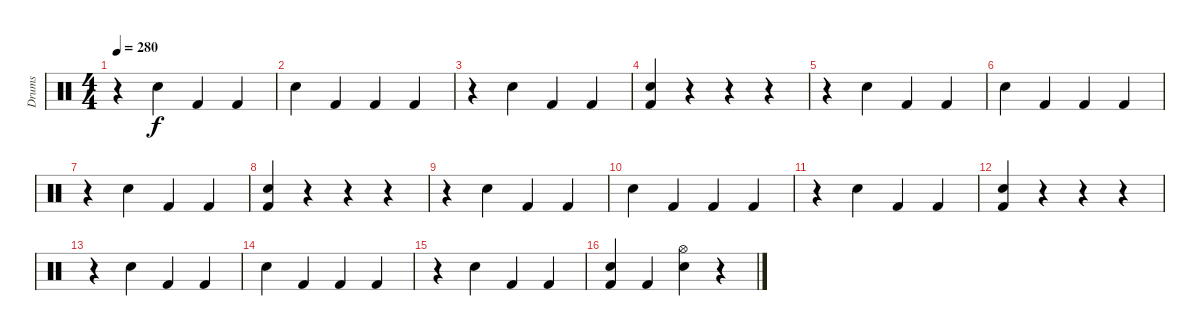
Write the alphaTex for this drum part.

\track ("Drums" "Drums") {instrument percussion}
\staff {score}
\articulation defaults
\ts (4 4)
\tempo 280
\clef neutral
\ks c
r.4{dy f} "Electric Snare (hit)".4 "Kick (hit) 2".4 "Kick (hit) 2".4 |
"Electric Snare (hit)".4 "Kick (hit) 2".4 "Kick (hit) 2".4 "Kick (hit) 2".4 |
r.4 "Electric Snare (hit)".4 "Kick (hit) 2".4 "Kick (hit) 2".4 |
("Electric Snare (hit)" "Kick (hit) 2").4 r.4 r.4 r.4 |
r.4 "Electric Snare (hit)".4 "Kick (hit) 2".4 "Kick (hit) 2".4 |
"Electric Snare (hit)".4 "Kick (hit) 2".4 "Kick (hit) 2".4 "Kick (hit) 2".4 |
r.4 "Electric Snare (hit)".4 "Kick (hit) 2".4 "Kick (hit) 2".4 |
("Electric Snare (hit)" "Kick (hit) 2").4 r.4 r.4 r.4 |
r.4 "Electric Snare (hit)".4 "Kick (hit) 2".4 "Kick (hit) 2".4 |
"Electric Snare (hit)".4 "Kick (hit) 2".4 "Kick (hit) 2".4 "Kick (hit) 2".4 |
r.4 "Electric Snare (hit)".4 "Kick (hit) 2".4 "Kick (hit) 2".4 |
("Electric Snare (hit)" "Kick (hit) 2").4 r.4 r.4 r.4 |
r.4 "Electric Snare (hit)".4 "Kick (hit) 2".4 "Kick (hit) 2".4 |
"Electric Snare (hit)".4 "Kick (hit) 2".4 "Kick (hit) 2".4 "Kick (hit) 2".4 |
r.4 "Electric Snare (hit)".4 "Kick (hit) 2".4 "Kick (hit) 2".4 |
("Electric Snare (hit)" "Kick (hit) 2").4 "Kick (hit) 2".4 ("Hi-Hat (open)" "Electric Snare (hit)").4 r.4
